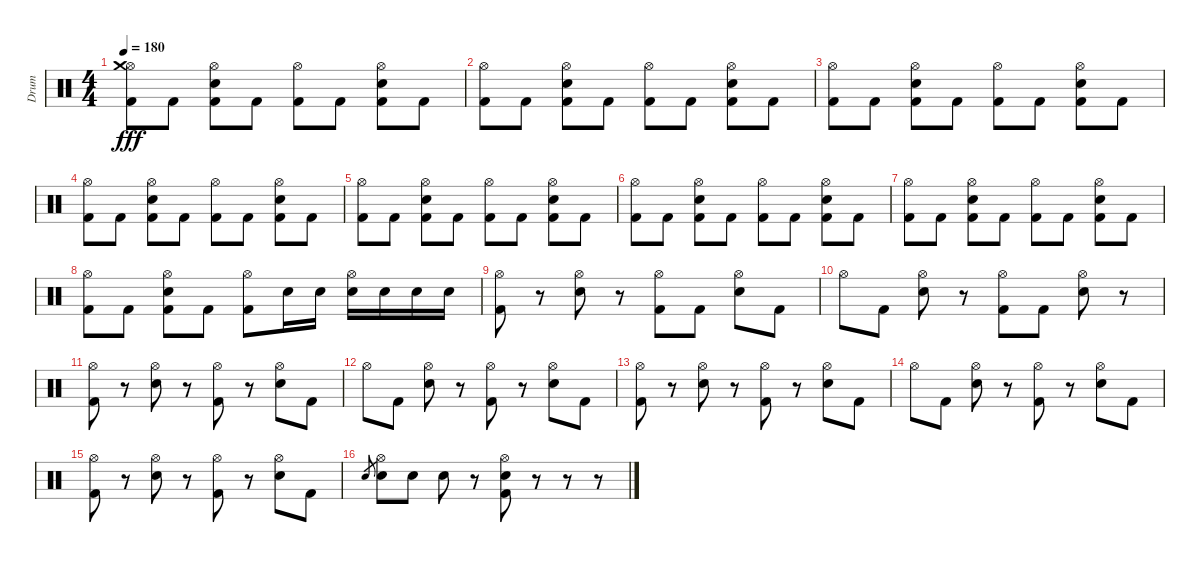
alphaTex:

\track ("Drum" "Drum") {instrument percussion}
\staff {score}
\articulation defaults
\ts (4 4)
\tempo 180
\clef neutral
\ks c
("Hi-Hat (open)" "Crash medium (hit)" "Kick (hit) 2").8{dy fff} "Kick (hit) 2".8 ("Hi-Hat (open)" "Electric Snare (hit)" "Kick (hit) 2").8 "Kick (hit) 2".8 ("Hi-Hat (open)" "Kick (hit) 2").8 "Kick (hit) 2".8 ("Hi-Hat (open)" "Electric Snare (hit)" "Kick (hit) 2").8 "Kick (hit) 2".8 |
("Hi-Hat (open)" "Kick (hit) 2").8 "Kick (hit) 2".8 ("Hi-Hat (open)" "Electric Snare (hit)" "Kick (hit) 2").8 "Kick (hit) 2".8 ("Hi-Hat (open)" "Kick (hit) 2").8 "Kick (hit) 2".8 ("Hi-Hat (open)" "Electric Snare (hit)" "Kick (hit) 2").8 "Kick (hit) 2".8 |
("Hi-Hat (open)" "Kick (hit) 2").8 "Kick (hit) 2".8 ("Hi-Hat (open)" "Electric Snare (hit)" "Kick (hit) 2").8 "Kick (hit) 2".8 ("Hi-Hat (open)" "Kick (hit) 2").8 "Kick (hit) 2".8 ("Hi-Hat (open)" "Electric Snare (hit)" "Kick (hit) 2").8 "Kick (hit) 2".8 |
("Hi-Hat (open)" "Kick (hit) 2").8 "Kick (hit) 2".8 ("Hi-Hat (open)" "Electric Snare (hit)" "Kick (hit) 2").8 "Kick (hit) 2".8 ("Hi-Hat (open)" "Kick (hit) 2").8 "Kick (hit) 2".8 ("Hi-Hat (open)" "Electric Snare (hit)" "Kick (hit) 2").8 "Kick (hit) 2".8 |
("Hi-Hat (open)" "Kick (hit) 2").8 "Kick (hit) 2".8 ("Hi-Hat (open)" "Electric Snare (hit)" "Kick (hit) 2").8 "Kick (hit) 2".8 ("Hi-Hat (open)" "Kick (hit) 2").8 "Kick (hit) 2".8 ("Hi-Hat (open)" "Electric Snare (hit)" "Kick (hit) 2").8 "Kick (hit) 2".8 |
("Hi-Hat (open)" "Kick (hit) 2").8 "Kick (hit) 2".8 ("Hi-Hat (open)" "Electric Snare (hit)" "Kick (hit) 2").8 "Kick (hit) 2".8 ("Hi-Hat (open)" "Kick (hit) 2").8 "Kick (hit) 2".8 ("Hi-Hat (open)" "Electric Snare (hit)" "Kick (hit) 2").8 "Kick (hit) 2".8 |
("Hi-Hat (open)" "Kick (hit) 2").8 "Kick (hit) 2".8 ("Hi-Hat (open)" "Electric Snare (hit)" "Kick (hit) 2").8 "Kick (hit) 2".8 ("Hi-Hat (open)" "Kick (hit) 2").8 "Kick (hit) 2".8 ("Hi-Hat (open)" "Electric Snare (hit)" "Kick (hit) 2").8 "Kick (hit) 2".8 |
("Hi-Hat (open)" "Kick (hit) 2").8 "Kick (hit) 2".8 ("Hi-Hat (open)" "Electric Snare (hit)" "Kick (hit) 2").8 "Kick (hit) 2".8 ("Hi-Hat (open)" "Kick (hit) 2").8 "Electric Snare (hit)".16 "Electric Snare (hit)".16 ("Hi-Hat (open)" "Electric Snare (hit)").16 "Electric Snare (hit)".16 "Electric Snare (hit)".16 "Electric Snare (hit)".16 |
("Hi-Hat (open)" "Kick (hit) 2").8 r.8 ("Hi-Hat (open)" "Electric Snare (hit)").8 r.8 ("Hi-Hat (open)" "Kick (hit) 2").8 "Kick (hit) 2".8 ("Hi-Hat (open)" "Electric Snare (hit)").8 "Kick (hit) 2".8 |
"Hi-Hat (open)".8 "Kick (hit) 2".8 ("Hi-Hat (open)" "Electric Snare (hit)").8 r.8 ("Hi-Hat (open)" "Kick (hit) 2").8 "Kick (hit) 2".8 ("Hi-Hat (open)" "Electric Snare (hit)").8 r.8 |
("Hi-Hat (open)" "Kick (hit) 2").8 r.8 ("Hi-Hat (open)" "Electric Snare (hit)").8 r.8 ("Hi-Hat (open)" "Kick (hit) 2").8 r.8 ("Hi-Hat (open)" "Electric Snare (hit)").8 "Kick (hit) 2".8 |
"Hi-Hat (open)".8 "Kick (hit) 2".8 ("Hi-Hat (open)" "Electric Snare (hit)").8 r.8 ("Hi-Hat (open)" "Kick (hit) 2").8 r.8 ("Hi-Hat (open)" "Electric Snare (hit)").8 "Kick (hit) 2".8 |
("Hi-Hat (open)" "Kick (hit) 2").8 r.8 ("Hi-Hat (open)" "Electric Snare (hit)").8 r.8 ("Hi-Hat (open)" "Kick (hit) 2").8 r.8 ("Hi-Hat (open)" "Electric Snare (hit)").8 "Kick (hit) 2".8 |
"Hi-Hat (open)".8 "Kick (hit) 2".8 ("Hi-Hat (open)" "Electric Snare (hit)").8 r.8 ("Hi-Hat (open)" "Kick (hit) 2").8 r.8 ("Hi-Hat (open)" "Electric Snare (hit)").8 "Kick (hit) 2".8 |
("Hi-Hat (open)" "Kick (hit) 2").8 r.8 ("Hi-Hat (open)" "Electric Snare (hit)").8 r.8 ("Hi-Hat (open)" "Kick (hit) 2").8 r.8 ("Hi-Hat (open)" "Electric Snare (hit)").8 "Kick (hit) 2".8 |
"Electric Snare (hit)".8{gr} ("Hi-Hat (open)" "Electric Snare (hit)").8 "Electric Snare (hit)".8 "Electric Snare (hit)".8 r.8 ("Hi-Hat (open)" "Electric Snare (hit)" "Kick (hit) 2").8 r.8 r.8 r.8
